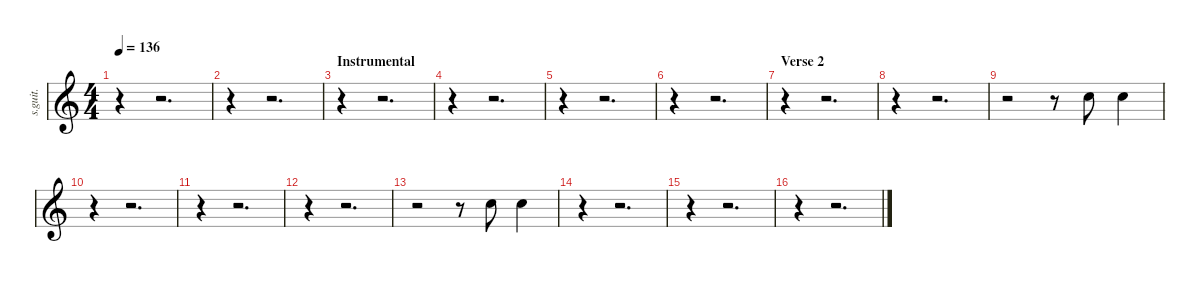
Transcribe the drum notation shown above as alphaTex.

\defaultSystemsLayout 4
\hideDynamics
\bracketExtendMode nobrackets
\track ("(Hand Claps)" "s.guit.") {instrument percussion}
\staff {score}
\articulation defaults
\ts (4 4)
\tempo 136
\clef g2
\ks c
r.4{dy f} r.2{d} |
r.4 r.2{d} |
\section ("" "Instrumental")
r.4 r.2{d} |
r.4 r.2{d} |
r.4 r.2{d} |
r.4 r.2{d} |
\section ("" "Verse 2")
r.4 r.2{d} |
r.4 r.2{d} |
r.2 r.8 "Hand Clap (hit)".8{lyrics (0 "") lyrics (1 "") lyrics (2 "") lyrics (3 "") lyrics (4 "")} "Hand Clap (hit)".4{lyrics (0 "") lyrics (1 "") lyrics (2 "") lyrics (3 "") lyrics (4 "")} |
r.4 r.2{d} |
r.4 r.2{d} |
r.4 r.2{d} |
r.2 r.8 "Hand Clap (hit)".8{lyrics (0 "") lyrics (1 "") lyrics (2 "") lyrics (3 "") lyrics (4 "")} "Hand Clap (hit)".4{lyrics (0 "") lyrics (1 "") lyrics (2 "") lyrics (3 "") lyrics (4 "")} |
r.4 r.2{d} |
r.4 r.2{d} |
r.4 r.2{d}
